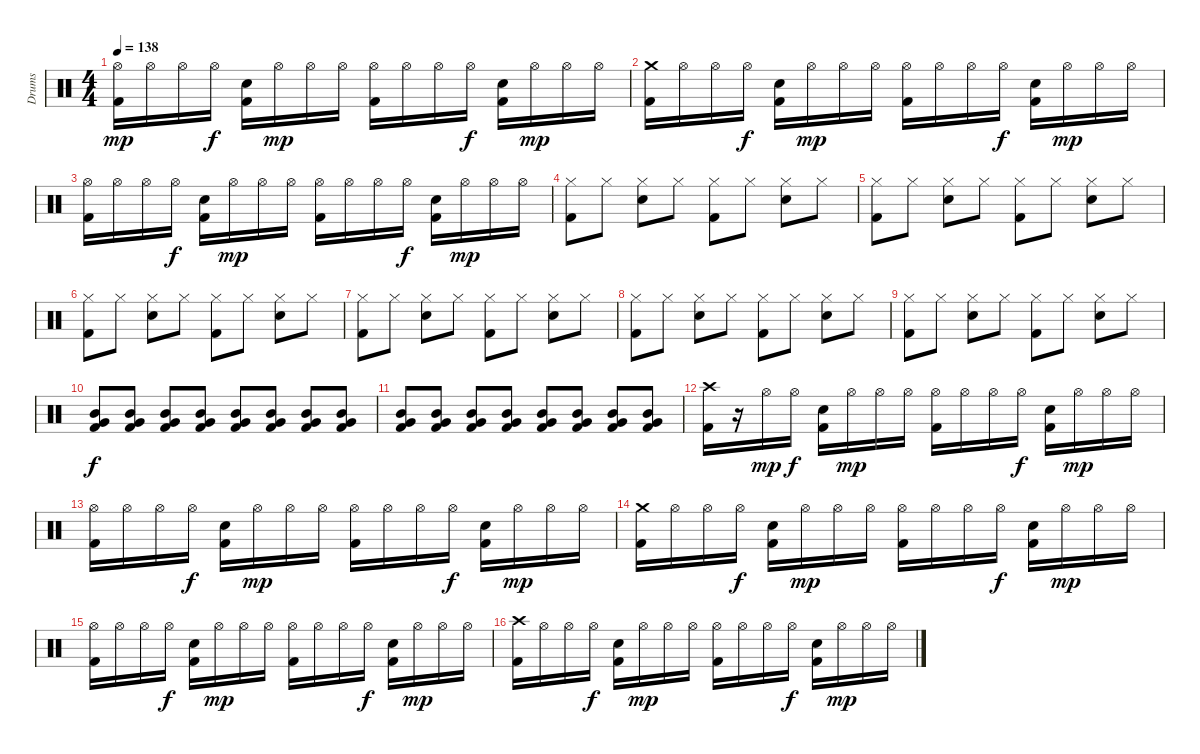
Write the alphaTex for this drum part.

\track ("Drums" "Drums") {instrument percussion}
\staff {score}
\articulation defaults
\ts (4 4)
\tempo 138
\clef neutral
\ks c
("Hi-Hat (open)" "Kick (hit) 2").16{dy mp} "Hi-Hat (open)".16 "Hi-Hat (open)".16 "Hi-Hat (open)".16{dy f} ("Electric Snare (hit)" "Kick (hit) 2").16 "Hi-Hat (open)".16{dy mp} "Hi-Hat (open)".16 "Hi-Hat (open)".16 ("Hi-Hat (open)" "Kick (hit) 2").16 "Hi-Hat (open)".16 "Hi-Hat (open)".16 "Hi-Hat (open)".16{dy f} ("Electric Snare (hit)" "Kick (hit) 2").16 "Hi-Hat (open)".16{dy mp} "Hi-Hat (open)".16 "Hi-Hat (open)".16 |
("Crash medium (hit)" "Kick (hit) 2").16 "Hi-Hat (open)".16 "Hi-Hat (open)".16 "Hi-Hat (open)".16{dy f} ("Electric Snare (hit)" "Kick (hit) 2").16 "Hi-Hat (open)".16{dy mp} "Hi-Hat (open)".16 "Hi-Hat (open)".16 ("Hi-Hat (open)" "Kick (hit) 2").16 "Hi-Hat (open)".16 "Hi-Hat (open)".16 "Hi-Hat (open)".16{dy f} ("Electric Snare (hit)" "Kick (hit) 2").16 "Hi-Hat (open)".16{dy mp} "Hi-Hat (open)".16 "Hi-Hat (open)".16 |
("Hi-Hat (open)" "Kick (hit) 2").16 "Hi-Hat (open)".16 "Hi-Hat (open)".16 "Hi-Hat (open)".16{dy f} ("Electric Snare (hit)" "Kick (hit) 2").16 "Hi-Hat (open)".16{dy mp} "Hi-Hat (open)".16 "Hi-Hat (open)".16 ("Hi-Hat (open)" "Kick (hit) 2").16 "Hi-Hat (open)".16 "Hi-Hat (open)".16 "Hi-Hat (open)".16{dy f} ("Electric Snare (hit)" "Kick (hit) 2").16 "Hi-Hat (open)".16{dy mp} "Hi-Hat (open)".16 "Hi-Hat (open)".16 |
("Hi-Hat (closed)" "Kick (hit) 2").8 "Hi-Hat (closed)".8 ("Hi-Hat (closed)" "Electric Snare (hit)").8 "Hi-Hat (closed)".8 ("Hi-Hat (closed)" "Kick (hit) 2").8 "Hi-Hat (closed)".8 ("Hi-Hat (closed)" "Electric Snare (hit)").8 "Hi-Hat (closed)".8 |
("Hi-Hat (closed)" "Kick (hit) 2").8 "Hi-Hat (closed)".8 ("Hi-Hat (closed)" "Electric Snare (hit)").8 "Hi-Hat (closed)".8 ("Hi-Hat (closed)" "Kick (hit) 2").8 "Hi-Hat (closed)".8 ("Hi-Hat (closed)" "Electric Snare (hit)").8 "Hi-Hat (closed)".8 |
("Hi-Hat (closed)" "Kick (hit) 2").8 "Hi-Hat (closed)".8 ("Hi-Hat (closed)" "Electric Snare (hit)").8 "Hi-Hat (closed)".8 ("Hi-Hat (closed)" "Kick (hit) 2").8 "Hi-Hat (closed)".8 ("Hi-Hat (closed)" "Electric Snare (hit)").8 "Hi-Hat (closed)".8 |
("Hi-Hat (closed)" "Kick (hit) 2").8 "Hi-Hat (closed)".8 ("Hi-Hat (closed)" "Electric Snare (hit)").8 "Hi-Hat (closed)".8 ("Hi-Hat (closed)" "Kick (hit) 2").8 "Hi-Hat (closed)".8 ("Hi-Hat (closed)" "Electric Snare (hit)").8 "Hi-Hat (closed)".8 |
("Hi-Hat (closed)" "Kick (hit) 2").8 "Hi-Hat (closed)".8 ("Hi-Hat (closed)" "Electric Snare (hit)").8 "Hi-Hat (closed)".8 ("Hi-Hat (closed)" "Kick (hit) 2").8 "Hi-Hat (closed)".8 ("Hi-Hat (closed)" "Electric Snare (hit)").8 "Hi-Hat (closed)".8 |
("Hi-Hat (closed)" "Kick (hit) 2").8 "Hi-Hat (closed)".8 ("Hi-Hat (closed)" "Electric Snare (hit)").8 "Hi-Hat (closed)".8 ("Hi-Hat (closed)" "Kick (hit) 2").8 "Hi-Hat (closed)".8 ("Hi-Hat (closed)" "Electric Snare (hit)").8 "Hi-Hat (closed)".8 |
("Very Low Tom (hit)" "Mid Tom (hit)" "Kick (hit) 2").8{dy f} ("Very Low Tom (hit)" "Mid Tom (hit)" "Kick (hit) 2").8 ("Very Low Tom (hit)" "Mid Tom (hit)" "Kick (hit) 2").8 ("Very Low Tom (hit)" "Mid Tom (hit)" "Kick (hit) 2").8 ("Very Low Tom (hit)" "Mid Tom (hit)" "Kick (hit) 2").8 ("Very Low Tom (hit)" "Mid Tom (hit)" "Kick (hit) 2").8 ("Very Low Tom (hit)" "Mid Tom (hit)" "Kick (hit) 2").8 ("Very Low Tom (hit)" "Mid Tom (hit)" "Kick (hit) 2").8 |
("Very Low Tom (hit)" "Mid Tom (hit)" "Kick (hit) 2").8 ("Very Low Tom (hit)" "Mid Tom (hit)" "Kick (hit) 2").8 ("Very Low Tom (hit)" "Mid Tom (hit)" "Kick (hit) 2").8 ("Very Low Tom (hit)" "Mid Tom (hit)" "Kick (hit) 2").8 ("Very Low Tom (hit)" "Mid Tom (hit)" "Kick (hit) 2").8 ("Very Low Tom (hit)" "Mid Tom (hit)" "Kick (hit) 2").8 ("Very Low Tom (hit)" "Mid Tom (hit)" "Kick (hit) 2").8 ("Very Low Tom (hit)" "Mid Tom (hit)" "Kick (hit) 2").8 |
("Crash high (hit)" "Kick (hit) 2").16 r.16 "Hi-Hat (open)".16{dy mp} "Hi-Hat (open)".16{dy f} ("Electric Snare (hit)" "Kick (hit) 2").16 "Hi-Hat (open)".16{dy mp} "Hi-Hat (open)".16 "Hi-Hat (open)".16 ("Hi-Hat (open)" "Kick (hit) 2").16 "Hi-Hat (open)".16 "Hi-Hat (open)".16 "Hi-Hat (open)".16{dy f} ("Electric Snare (hit)" "Kick (hit) 2").16 "Hi-Hat (open)".16{dy mp} "Hi-Hat (open)".16 "Hi-Hat (open)".16 |
("Hi-Hat (open)" "Kick (hit) 2").16 "Hi-Hat (open)".16 "Hi-Hat (open)".16 "Hi-Hat (open)".16{dy f} ("Electric Snare (hit)" "Kick (hit) 2").16 "Hi-Hat (open)".16{dy mp} "Hi-Hat (open)".16 "Hi-Hat (open)".16 ("Hi-Hat (open)" "Kick (hit) 2").16 "Hi-Hat (open)".16 "Hi-Hat (open)".16 "Hi-Hat (open)".16{dy f} ("Electric Snare (hit)" "Kick (hit) 2").16 "Hi-Hat (open)".16{dy mp} "Hi-Hat (open)".16 "Hi-Hat (open)".16 |
("Crash medium (hit)" "Kick (hit) 2").16 "Hi-Hat (open)".16 "Hi-Hat (open)".16 "Hi-Hat (open)".16{dy f} ("Electric Snare (hit)" "Kick (hit) 2").16 "Hi-Hat (open)".16{dy mp} "Hi-Hat (open)".16 "Hi-Hat (open)".16 ("Hi-Hat (open)" "Kick (hit) 2").16 "Hi-Hat (open)".16 "Hi-Hat (open)".16 "Hi-Hat (open)".16{dy f} ("Electric Snare (hit)" "Kick (hit) 2").16 "Hi-Hat (open)".16{dy mp} "Hi-Hat (open)".16 "Hi-Hat (open)".16 |
("Hi-Hat (open)" "Kick (hit) 2").16 "Hi-Hat (open)".16 "Hi-Hat (open)".16 "Hi-Hat (open)".16{dy f} ("Electric Snare (hit)" "Kick (hit) 2").16 "Hi-Hat (open)".16{dy mp} "Hi-Hat (open)".16 "Hi-Hat (open)".16 ("Hi-Hat (open)" "Kick (hit) 2").16 "Hi-Hat (open)".16 "Hi-Hat (open)".16 "Hi-Hat (open)".16{dy f} ("Electric Snare (hit)" "Kick (hit) 2").16 "Hi-Hat (open)".16{dy mp} "Hi-Hat (open)".16 "Hi-Hat (open)".16 |
("Crash high (hit)" "Kick (hit) 2").16 "Hi-Hat (open)".16 "Hi-Hat (open)".16 "Hi-Hat (open)".16{dy f} ("Electric Snare (hit)" "Kick (hit) 2").16 "Hi-Hat (open)".16{dy mp} "Hi-Hat (open)".16 "Hi-Hat (open)".16 ("Hi-Hat (open)" "Kick (hit) 2").16 "Hi-Hat (open)".16 "Hi-Hat (open)".16 "Hi-Hat (open)".16{dy f} ("Electric Snare (hit)" "Kick (hit) 2").16 "Hi-Hat (open)".16{dy mp} "Hi-Hat (open)".16 "Hi-Hat (open)".16
